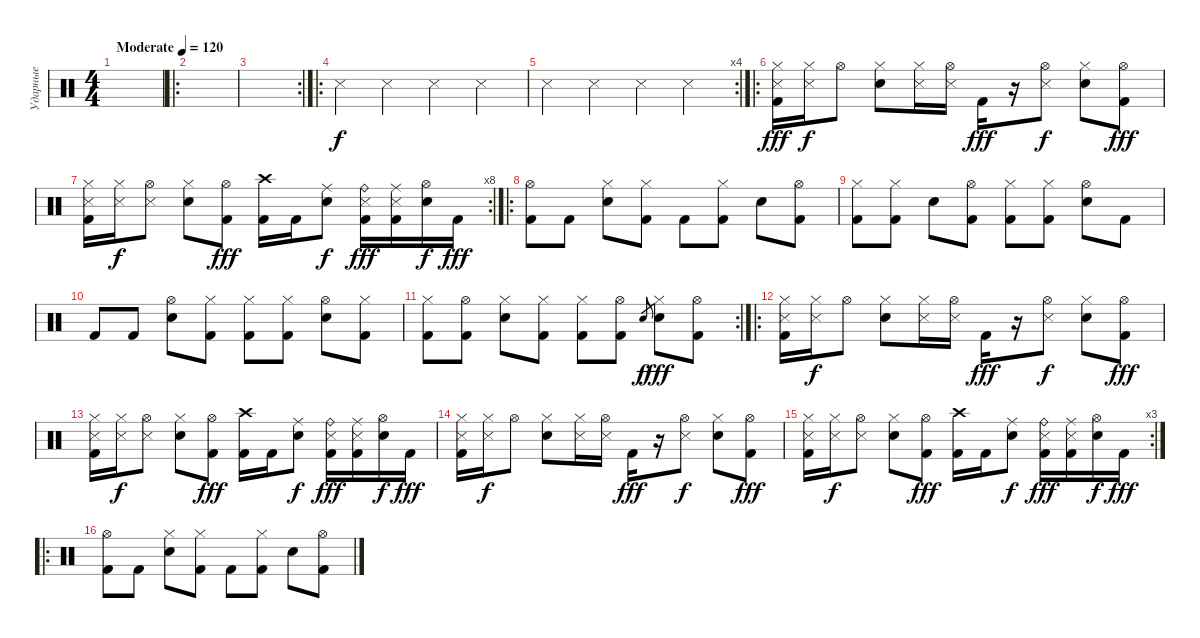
\track ("Ударные" "Ударные") {instrument percussion}
\staff {score}
\articulation defaults
\ts (4 4)
\tempo (120 "Moderate")
\clef neutral
\ks c
|
\ro
|
\rc 2
|
\ro "Snare (side stick) 3".4 "Snare (side stick) 3".4 "Snare (side stick) 3".4 "Snare (side stick) 3".4
|
\rc 4 "Snare (side stick) 3".4 "Snare (side stick) 3".4 "Snare (side stick) 3".4 "Snare (side stick) 3".4
|
\ro
("Hi-Hat (closed)" "Snare (side stick) 3" "Kick (hit) 2").16{dy fff} ("Hi-Hat (closed)" "Snare (side stick) 3").16{dy f} "Hi-Hat (open)".8 ("Hi-Hat (closed)" "Electric Snare (hit)").8 ("Hi-Hat (closed)" "Snare (side stick) 3").16 ("Hi-Hat (open)" "Snare (side stick) 3").16 "Kick (hit) 2".16{dy fff} r.16 ("Hi-Hat (open)" "Snare (side stick) 3").8{dy f} ("Hi-Hat (closed)" "Electric Snare (hit)").8 ("Hi-Hat (open)" "Kick (hit) 2").8{dy fff} |
\rc 8
("Hi-Hat (closed)" "Snare (side stick) 3" "Kick (hit) 2").16 ("Hi-Hat (closed)" "Snare (side stick) 3").16{dy f} ("Hi-Hat (open)" "Snare (side stick) 3").8 ("Hi-Hat (closed)" "Electric Snare (hit)").8 ("Hi-Hat (open)" "Kick (hit) 2").8{dy fff} ("Crash high (hit)" "Kick (hit) 2").16 "Kick (hit) 2".16 ("Ride (middle)" "Electric Snare (hit)").8{dy f} ("Ride (bell)" "Snare (side stick) 3" "Kick (hit) 2").16{dy fff} ("Ride (middle)" "Snare (side stick) 3" "Kick (hit) 2").16 ("Hi-Hat (open)" "Electric Snare (hit)").16{dy f} "Kick (hit) 2".16{dy fff} |
\ro
("Hi-Hat (open)" "Kick (hit) 2").8 "Kick (hit) 2".8 ("Hi-Hat (closed)" "Electric Snare (hit)").8 ("Hi-Hat (closed)" "Kick (hit) 2").8 "Kick (hit) 2".8 ("Hi-Hat (closed)" "Kick (hit) 2").8 "Electric Snare (hit)".8 ("Hi-Hat (open)" "Kick (hit) 2").8 |
("Hi-Hat (closed)" "Kick (hit) 2").8 ("Hi-Hat (closed)" "Kick (hit) 2").8 "Electric Snare (hit)".8 ("Hi-Hat (open)" "Kick (hit) 2").8 ("Hi-Hat (closed)" "Kick (hit) 2").8 ("Hi-Hat (closed)" "Kick (hit) 2").8 ("Hi-Hat (open)" "Electric Snare (hit)").8 "Kick (hit) 2".8 |
"Kick (hit) 2".8 "Kick (hit) 2".8 ("Hi-Hat (open)" "Electric Snare (hit)").8 ("Hi-Hat (closed)" "Kick (hit) 2").8 ("Hi-Hat (closed)" "Kick (hit) 2").8 ("Hi-Hat (closed)" "Kick (hit) 2").8 ("Hi-Hat (open)" "Electric Snare (hit)").8 ("Hi-Hat (closed)" "Kick (hit) 2").8 |
\rc 2
("Hi-Hat (closed)" "Kick (hit) 2").8 ("Hi-Hat (open)" "Kick (hit) 2").8 ("Hi-Hat (closed)" "Electric Snare (hit)").8 ("Hi-Hat (closed)" "Kick (hit) 2").8 ("Hi-Hat (closed)" "Kick (hit) 2").8 ("Hi-Hat (open)" "Kick (hit) 2").8 "Electric Snare (hit)".8{gr dy f} ("Hi-Hat (closed)" "Electric Snare (hit)").8{dy fff} ("Hi-Hat (open)" "Kick (hit) 2").8 |
\ro
("Hi-Hat (closed)" "Snare (side stick) 3" "Kick (hit) 2").16 ("Hi-Hat (closed)" "Snare (side stick) 3").16{dy f} "Hi-Hat (open)".8 ("Hi-Hat (closed)" "Electric Snare (hit)").8 ("Hi-Hat (closed)" "Snare (side stick) 3").16 ("Hi-Hat (open)" "Snare (side stick) 3").16 "Kick (hit) 2".16{dy fff} r.16 ("Hi-Hat (open)" "Snare (side stick) 3").8{dy f} ("Hi-Hat (closed)" "Electric Snare (hit)").8 ("Hi-Hat (open)" "Kick (hit) 2").8{dy fff} |
("Hi-Hat (closed)" "Snare (side stick) 3" "Kick (hit) 2").16 ("Hi-Hat (closed)" "Snare (side stick) 3").16{dy f} ("Hi-Hat (open)" "Snare (side stick) 3").8 ("Hi-Hat (closed)" "Electric Snare (hit)").8 ("Hi-Hat (open)" "Kick (hit) 2").8{dy fff} ("Crash high (hit)" "Kick (hit) 2").16 "Kick (hit) 2".16 ("Ride (middle)" "Electric Snare (hit)").8{dy f} ("Ride (bell)" "Snare (side stick) 3" "Kick (hit) 2").16{dy fff} ("Ride (middle)" "Snare (side stick) 3" "Kick (hit) 2").16 ("Hi-Hat (open)" "Electric Snare (hit)").16{dy f} "Kick (hit) 2".16{dy fff} |
("Hi-Hat (closed)" "Snare (side stick) 3" "Kick (hit) 2").16 ("Hi-Hat (closed)" "Snare (side stick) 3").16{dy f} "Hi-Hat (open)".8 ("Hi-Hat (closed)" "Electric Snare (hit)").8 ("Hi-Hat (closed)" "Snare (side stick) 3").16 ("Hi-Hat (open)" "Snare (side stick) 3").16 "Kick (hit) 2".16{dy fff} r.16 ("Hi-Hat (open)" "Snare (side stick) 3").8{dy f} ("Hi-Hat (closed)" "Electric Snare (hit)").8 ("Hi-Hat (open)" "Kick (hit) 2").8{dy fff} |
\rc 3
("Hi-Hat (closed)" "Snare (side stick) 3" "Kick (hit) 2").16 ("Hi-Hat (closed)" "Snare (side stick) 3").16{dy f} ("Hi-Hat (open)" "Snare (side stick) 3").8 ("Hi-Hat (closed)" "Electric Snare (hit)").8 ("Hi-Hat (open)" "Kick (hit) 2").8{dy fff} ("Crash high (hit)" "Kick (hit) 2").16 "Kick (hit) 2".16 ("Ride (middle)" "Electric Snare (hit)").8{dy f} ("Ride (bell)" "Snare (side stick) 3" "Kick (hit) 2").16{dy fff} ("Ride (middle)" "Snare (side stick) 3" "Kick (hit) 2").16 ("Hi-Hat (open)" "Electric Snare (hit)").16{dy f} "Kick (hit) 2".16{dy fff} |
\ro
("Hi-Hat (open)" "Kick (hit) 2").8 "Kick (hit) 2".8 ("Hi-Hat (closed)" "Electric Snare (hit)").8 ("Hi-Hat (closed)" "Kick (hit) 2").8 "Kick (hit) 2".8 ("Hi-Hat (closed)" "Kick (hit) 2").8 "Electric Snare (hit)".8 ("Hi-Hat (open)" "Kick (hit) 2").8
